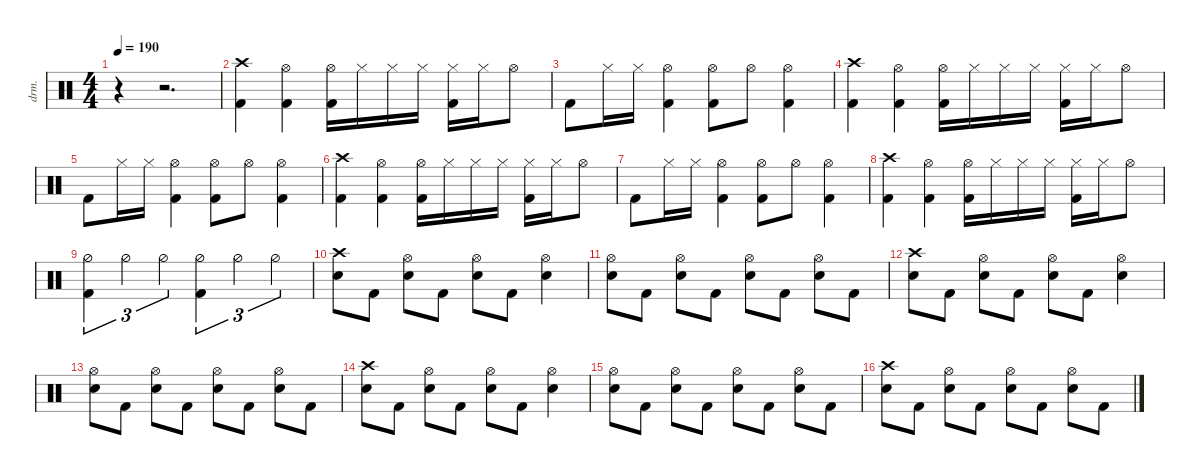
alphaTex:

\defaultSystemsLayout 4
\hideDynamics
\bracketExtendMode nobrackets
\track ("Drumkit" "drm.") {instrument percussion}
\staff {score}
\articulation defaults
\ts (4 4)
\beaming (8 2 2 2 2)
\tempo 190
\clef neutral
\ks c
r.4{dy mf} r.2{d} |
("Kick (hit) 2" "Crash high (hit)").4 ("Kick (hit) 2" "Hi-Hat (open)").4 ("Kick (hit) 2" "Hi-Hat (open)").16 "Hi-Hat (closed)".16 "Hi-Hat (closed)".16 "Hi-Hat (closed)".16 ("Kick (hit) 2" "Hi-Hat (closed)").16 "Hi-Hat (closed)".16 "Hi-Hat (open)".8 |
"Kick (hit) 2".8 "Hi-Hat (closed)".16 "Hi-Hat (closed)".16 ("Kick (hit) 2" "Hi-Hat (open)").4 ("Kick (hit) 2" "Hi-Hat (open)").8 "Hi-Hat (open)".8 ("Kick (hit) 2" "Hi-Hat (open)").4 |
("Kick (hit) 2" "Crash high (hit)").4 ("Kick (hit) 2" "Hi-Hat (open)").4 ("Kick (hit) 2" "Hi-Hat (open)").16 "Hi-Hat (closed)".16 "Hi-Hat (closed)".16 "Hi-Hat (closed)".16 ("Kick (hit) 2" "Hi-Hat (closed)").16 "Hi-Hat (closed)".16 "Hi-Hat (open)".8 |
"Kick (hit) 2".8 "Hi-Hat (closed)".16 "Hi-Hat (closed)".16 ("Kick (hit) 2" "Hi-Hat (open)").4 ("Kick (hit) 2" "Hi-Hat (open)").8 "Hi-Hat (open)".8 ("Kick (hit) 2" "Hi-Hat (open)").4 |
("Kick (hit) 2" "Crash high (hit)").4 ("Kick (hit) 2" "Hi-Hat (open)").4 ("Kick (hit) 2" "Hi-Hat (open)").16 "Hi-Hat (closed)".16 "Hi-Hat (closed)".16 "Hi-Hat (closed)".16 ("Kick (hit) 2" "Hi-Hat (closed)").16 "Hi-Hat (closed)".16 "Hi-Hat (open)".8 |
"Kick (hit) 2".8 "Hi-Hat (closed)".16 "Hi-Hat (closed)".16 ("Kick (hit) 2" "Hi-Hat (open)").4 ("Kick (hit) 2" "Hi-Hat (open)").8 "Hi-Hat (open)".8 ("Kick (hit) 2" "Hi-Hat (open)").4 |
("Kick (hit) 2" "Crash high (hit)").4 ("Kick (hit) 2" "Hi-Hat (open)").4 ("Kick (hit) 2" "Hi-Hat (open)").16 "Hi-Hat (closed)".16 "Hi-Hat (closed)".16 "Hi-Hat (closed)".16 ("Kick (hit) 2" "Hi-Hat (closed)").16 "Hi-Hat (closed)".16 "Hi-Hat (open)".8 |
("Kick (hit) 2" "Hi-Hat (half)").4{tu (3 2)} "Hi-Hat (half)".4{tu (3 2)} "Hi-Hat (half)".4{tu (3 2)} ("Kick (hit) 2" "Hi-Hat (half)").4{tu (3 2)} "Hi-Hat (half)".4{tu (3 2)} "Hi-Hat (half)".4{tu (3 2)} |
("Snare (hit) 2" "Crash high (hit)").8 "Kick (hit) 2".8 ("Snare (hit) 2" "Hi-Hat (open)").8 "Kick (hit) 2".8 ("Snare (hit) 2" "Hi-Hat (open)").8 "Kick (hit) 2".8 ("Snare (hit) 2" "Hi-Hat (open)").4 |
("Snare (hit) 2" "Hi-Hat (open)").8 "Kick (hit) 2".8 ("Snare (hit) 2" "Hi-Hat (open)").8 "Kick (hit) 2".8 ("Snare (hit) 2" "Hi-Hat (open)").8 "Kick (hit) 2".8 ("Snare (hit) 2" "Hi-Hat (open)").8 "Kick (hit) 2".8 |
("Snare (hit) 2" "Crash high (hit)").8 "Kick (hit) 2".8 ("Snare (hit) 2" "Hi-Hat (open)").8 "Kick (hit) 2".8 ("Snare (hit) 2" "Hi-Hat (open)").8 "Kick (hit) 2".8 ("Snare (hit) 2" "Hi-Hat (open)").4 |
("Snare (hit) 2" "Hi-Hat (open)").8 "Kick (hit) 2".8 ("Snare (hit) 2" "Hi-Hat (open)").8 "Kick (hit) 2".8 ("Snare (hit) 2" "Hi-Hat (open)").8 "Kick (hit) 2".8 ("Snare (hit) 2" "Hi-Hat (open)").8 "Kick (hit) 2".8 |
("Snare (hit) 2" "Crash high (hit)").8 "Kick (hit) 2".8 ("Snare (hit) 2" "Hi-Hat (open)").8 "Kick (hit) 2".8 ("Snare (hit) 2" "Hi-Hat (open)").8 "Kick (hit) 2".8 ("Snare (hit) 2" "Hi-Hat (open)").4 |
("Snare (hit) 2" "Hi-Hat (open)").8 "Kick (hit) 2".8 ("Snare (hit) 2" "Hi-Hat (open)").8 "Kick (hit) 2".8 ("Snare (hit) 2" "Hi-Hat (open)").8 "Kick (hit) 2".8 ("Snare (hit) 2" "Hi-Hat (open)").8 "Kick (hit) 2".8 |
("Snare (hit) 2" "Crash high (hit)").8 "Kick (hit) 2".8 ("Snare (hit) 2" "Hi-Hat (open)").8 "Kick (hit) 2".8 ("Snare (hit) 2" "Hi-Hat (open)").8 "Kick (hit) 2".8 ("Snare (hit) 2" "Hi-Hat (open)").8 "Kick (hit) 2".8
